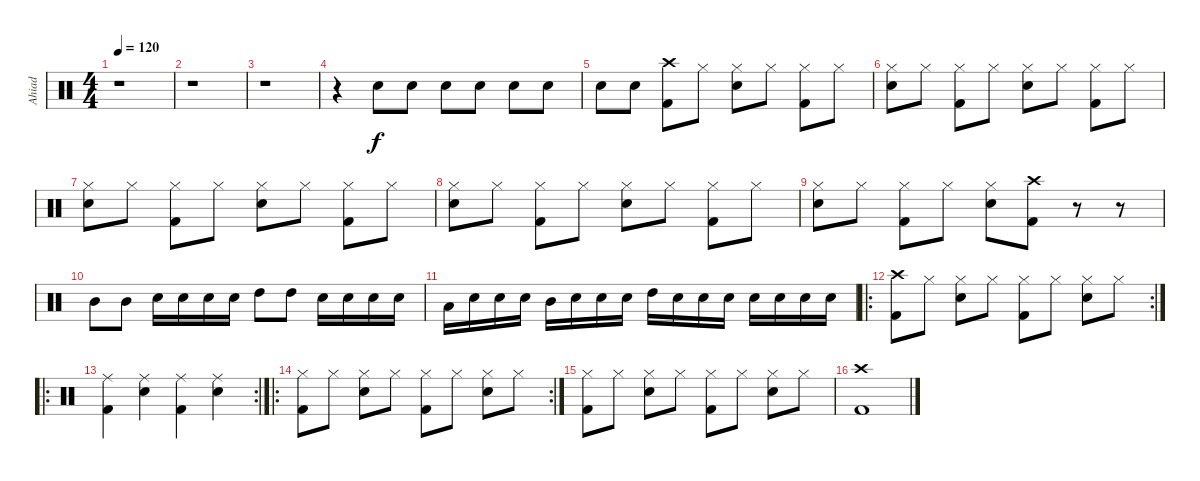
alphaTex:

\track ("Ahiad" "Ahiad") {instrument percussion}
\staff {score}
\articulation defaults
\ts (4 4)
\tempo 120
\clef neutral
\ks c
r.1{dy f} |
r.1 |
r.1 |
r.4 "Snare (hit) 2".8 "Snare (hit) 2".8 "Snare (hit) 2".8 "Snare (hit) 2".8 "Snare (hit) 2".8 "Snare (hit) 2".8 |
"Snare (hit) 2".8 "Snare (hit) 2".8 ("Crash high (hit)" "Kick (hit) 2").8 "Hi-Hat (closed)".8 ("Hi-Hat (closed)" "Snare (hit) 2").8 "Hi-Hat (closed)".8 ("Hi-Hat (closed)" "Kick (hit) 2").8 "Hi-Hat (closed)".8 |
("Hi-Hat (closed)" "Snare (hit) 2").8 "Hi-Hat (closed)".8 ("Hi-Hat (closed)" "Kick (hit) 2").8 "Hi-Hat (closed)".8 ("Hi-Hat (closed)" "Snare (hit) 2").8 "Hi-Hat (closed)".8 ("Hi-Hat (closed)" "Kick (hit) 2").8 "Hi-Hat (closed)".8 |
("Hi-Hat (closed)" "Snare (hit) 2").8 "Hi-Hat (closed)".8 ("Hi-Hat (closed)" "Kick (hit) 2").8 "Hi-Hat (closed)".8 ("Hi-Hat (closed)" "Snare (hit) 2").8 "Hi-Hat (closed)".8 ("Hi-Hat (closed)" "Kick (hit) 2").8 "Hi-Hat (closed)".8 |
("Hi-Hat (closed)" "Snare (hit) 2").8 "Hi-Hat (closed)".8 ("Hi-Hat (closed)" "Kick (hit) 2").8 "Hi-Hat (closed)".8 ("Hi-Hat (closed)" "Snare (hit) 2").8 "Hi-Hat (closed)".8 ("Hi-Hat (closed)" "Kick (hit) 2").8 "Hi-Hat (closed)".8 |
("Hi-Hat (closed)" "Snare (hit) 2").8 "Hi-Hat (closed)".8 ("Hi-Hat (closed)" "Kick (hit) 2").8 "Hi-Hat (closed)".8 ("Hi-Hat (closed)" "Snare (hit) 2").8 ("Crash high (hit)" "Kick (hit) 2").8 r.8 r.8 |
"Mid Tom (hit)".8 "Mid Tom (hit)".8 "Snare (hit) 2".16 "Snare (hit) 2".16 "Snare (hit) 2".16 "Snare (hit) 2".16 "High Tom (hit)".8 "High Tom (hit)".8 "Snare (hit) 2".16 "Snare (hit) 2".16 "Snare (hit) 2".16 "Snare (hit) 2".16 |
"Low Tom (hit)".16 "Snare (hit) 2".16 "Snare (hit) 2".16 "Snare (hit) 2".16 "Mid Tom (hit)".16 "Snare (hit) 2".16 "Snare (hit) 2".16 "Snare (hit) 2".16 "High Tom (hit)".16 "Snare (hit) 2".16 "Snare (hit) 2".16 "Snare (hit) 2".16 "Snare (hit) 2".16 "Snare (hit) 2".16 "Snare (hit) 2".16 "Snare (hit) 2".16 |
\ro
\rc 2
("Crash high (hit)" "Kick (hit) 2").8 "Hi-Hat (closed)".8 ("Hi-Hat (closed)" "Snare (hit) 2").8 "Hi-Hat (closed)".8 ("Hi-Hat (closed)" "Kick (hit) 2").8 "Hi-Hat (closed)".8 ("Hi-Hat (closed)" "Snare (hit) 2").8 "Hi-Hat (closed)".8 |
\ro
\rc 2
("Ride (middle)" "Kick (hit) 2").4 ("Ride (middle)" "Snare (hit) 2").4 ("Ride (middle)" "Kick (hit) 2").4 ("Ride (middle)" "Snare (hit) 2").4 |
\ro
\rc 2
("Hi-Hat (closed)" "Kick (hit) 2").8 "Hi-Hat (closed)".8 ("Hi-Hat (closed)" "Snare (hit) 2").8 "Hi-Hat (closed)".8 ("Hi-Hat (closed)" "Kick (hit) 2").8 "Hi-Hat (closed)".8 ("Hi-Hat (closed)" "Snare (hit) 2").8 "Hi-Hat (closed)".8 |
("Hi-Hat (closed)" "Kick (hit) 2").8 "Hi-Hat (closed)".8 ("Hi-Hat (closed)" "Snare (hit) 2").8 "Hi-Hat (closed)".8 ("Hi-Hat (closed)" "Kick (hit) 2").8 "Hi-Hat (closed)".8 ("Hi-Hat (closed)" "Snare (hit) 2").8 "Hi-Hat (closed)".8 |
("Crash high (hit)" "Kick (hit) 2").1
